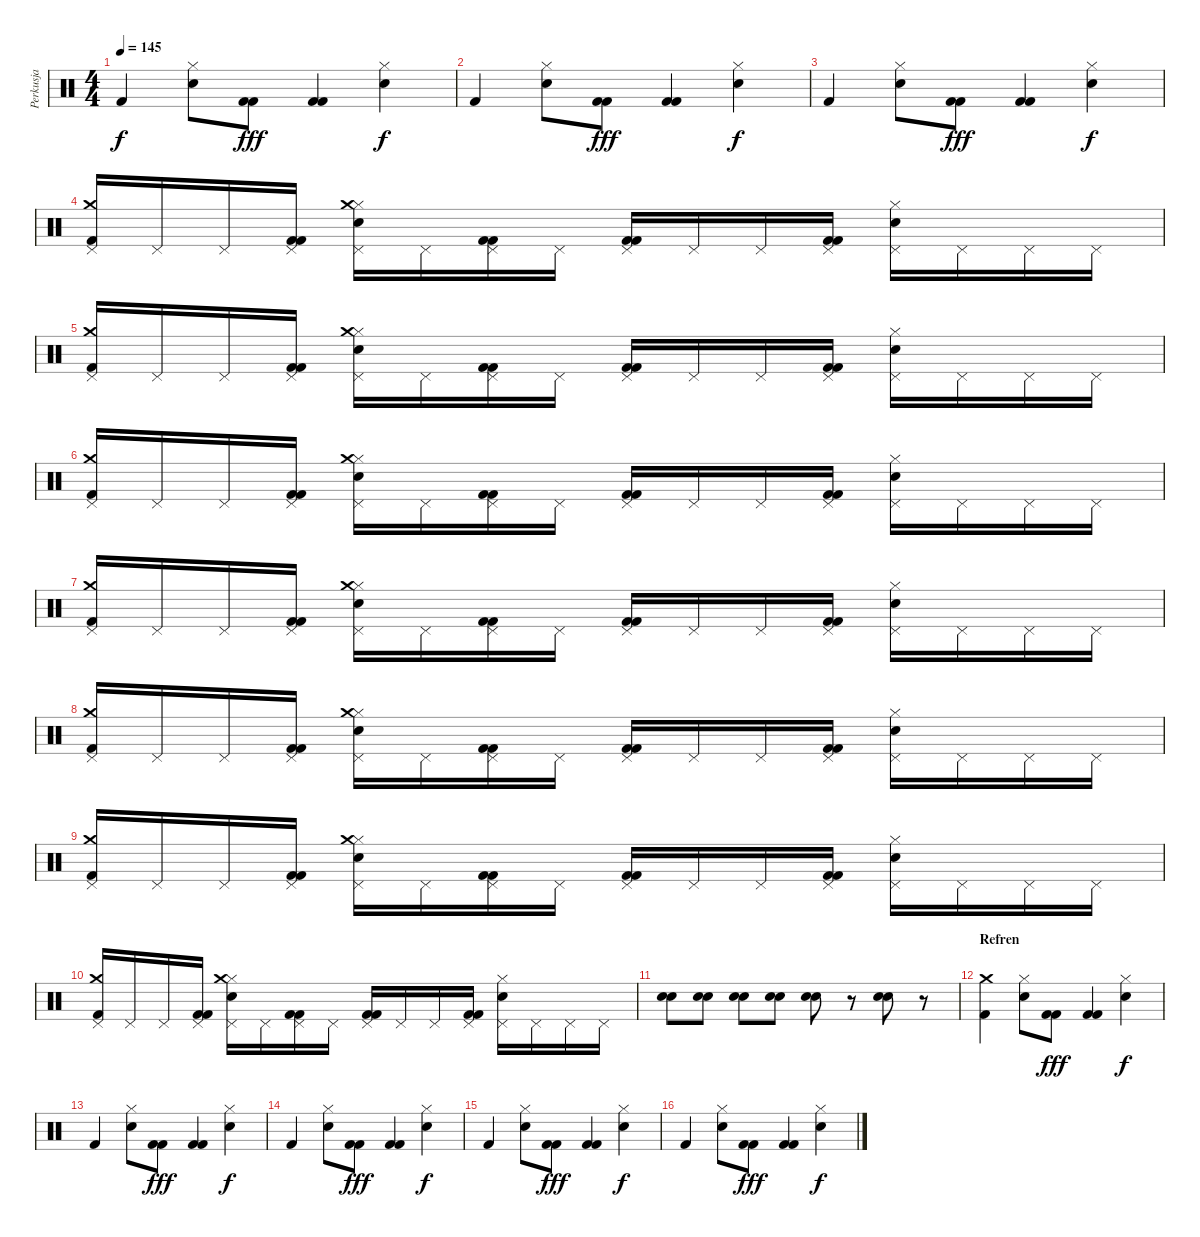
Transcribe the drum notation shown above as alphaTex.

\track ("Perkusja" "Perkusja") {instrument percussion}
\staff {score}
\articulation defaults
\ts (4 4)
\tempo 145
\clef neutral
\ks c "Kick (hit) 2".4{dy f}
("Hi-Hat (closed)" "Snare (hit) 2").8 ("Kick (hit) 2" "Kick (hit) 2").8{dy fff} ("Kick (hit) 2" "Kick (hit) 2").4 ("Hi-Hat (closed)" "Snare (hit) 2").4{dy f} |
"Kick (hit) 2".4 ("Hi-Hat (closed)" "Snare (hit) 2").8 ("Kick (hit) 2" "Kick (hit) 2").8{dy fff} ("Kick (hit) 2" "Kick (hit) 2").4 ("Hi-Hat (closed)" "Snare (hit) 2").4{dy f} |
"Kick (hit) 2".4 ("Hi-Hat (closed)" "Snare (hit) 2").8 ("Kick (hit) 2" "Kick (hit) 2").8{dy fff} ("Kick (hit) 2" "Kick (hit) 2").4 ("Hi-Hat (closed)" "Snare (hit) 2").4{dy f} |
("Kick (hit) 2" "Crash medium (hit)" "Pedal Hi-Hat (hit)").16 "Pedal Hi-Hat (hit)".16 "Pedal Hi-Hat (hit)".16 ("Kick (hit) 2" "Kick (hit) 2" "Pedal Hi-Hat (hit)").16 ("Hi-Hat (closed)" "Snare (hit) 2" "Crash medium (hit)" "Pedal Hi-Hat (hit)").16 "Pedal Hi-Hat (hit)".16 ("Kick (hit) 2" "Kick (hit) 2" "Pedal Hi-Hat (hit)").16 "Pedal Hi-Hat (hit)".16 ("Kick (hit) 2" "Kick (hit) 2" "Pedal Hi-Hat (hit)").16 "Pedal Hi-Hat (hit)".16 "Pedal Hi-Hat (hit)".16 ("Kick (hit) 2" "Kick (hit) 2" "Pedal Hi-Hat (hit)").16 ("Hi-Hat (closed)" "Snare (hit) 2" "Pedal Hi-Hat (hit)").16 "Pedal Hi-Hat (hit)".16 "Pedal Hi-Hat (hit)".16 "Pedal Hi-Hat (hit)".16 |
("Kick (hit) 2" "Crash medium (hit)" "Pedal Hi-Hat (hit)").16 "Pedal Hi-Hat (hit)".16 "Pedal Hi-Hat (hit)".16 ("Kick (hit) 2" "Kick (hit) 2" "Pedal Hi-Hat (hit)").16 ("Hi-Hat (closed)" "Snare (hit) 2" "Crash medium (hit)" "Pedal Hi-Hat (hit)").16 "Pedal Hi-Hat (hit)".16 ("Kick (hit) 2" "Kick (hit) 2" "Pedal Hi-Hat (hit)").16 "Pedal Hi-Hat (hit)".16 ("Kick (hit) 2" "Kick (hit) 2" "Pedal Hi-Hat (hit)").16 "Pedal Hi-Hat (hit)".16 "Pedal Hi-Hat (hit)".16 ("Kick (hit) 2" "Kick (hit) 2" "Pedal Hi-Hat (hit)").16 ("Hi-Hat (closed)" "Snare (hit) 2" "Pedal Hi-Hat (hit)").16 "Pedal Hi-Hat (hit)".16 "Pedal Hi-Hat (hit)".16 "Pedal Hi-Hat (hit)".16 |
("Kick (hit) 2" "Crash medium (hit)" "Pedal Hi-Hat (hit)").16 "Pedal Hi-Hat (hit)".16 "Pedal Hi-Hat (hit)".16 ("Kick (hit) 2" "Kick (hit) 2" "Pedal Hi-Hat (hit)").16 ("Hi-Hat (closed)" "Snare (hit) 2" "Crash medium (hit)" "Pedal Hi-Hat (hit)").16 "Pedal Hi-Hat (hit)".16 ("Kick (hit) 2" "Kick (hit) 2" "Pedal Hi-Hat (hit)").16 "Pedal Hi-Hat (hit)".16 ("Kick (hit) 2" "Kick (hit) 2" "Pedal Hi-Hat (hit)").16 "Pedal Hi-Hat (hit)".16 "Pedal Hi-Hat (hit)".16 ("Kick (hit) 2" "Kick (hit) 2" "Pedal Hi-Hat (hit)").16 ("Hi-Hat (closed)" "Snare (hit) 2" "Pedal Hi-Hat (hit)").16 "Pedal Hi-Hat (hit)".16 "Pedal Hi-Hat (hit)".16 "Pedal Hi-Hat (hit)".16 |
("Kick (hit) 2" "Crash medium (hit)" "Pedal Hi-Hat (hit)").16 "Pedal Hi-Hat (hit)".16 "Pedal Hi-Hat (hit)".16 ("Kick (hit) 2" "Kick (hit) 2" "Pedal Hi-Hat (hit)").16 ("Hi-Hat (closed)" "Snare (hit) 2" "Crash medium (hit)" "Pedal Hi-Hat (hit)").16 "Pedal Hi-Hat (hit)".16 ("Kick (hit) 2" "Kick (hit) 2" "Pedal Hi-Hat (hit)").16 "Pedal Hi-Hat (hit)".16 ("Kick (hit) 2" "Kick (hit) 2" "Pedal Hi-Hat (hit)").16 "Pedal Hi-Hat (hit)".16 "Pedal Hi-Hat (hit)".16 ("Kick (hit) 2" "Kick (hit) 2" "Pedal Hi-Hat (hit)").16 ("Hi-Hat (closed)" "Snare (hit) 2" "Pedal Hi-Hat (hit)").16 "Pedal Hi-Hat (hit)".16 "Pedal Hi-Hat (hit)".16 "Pedal Hi-Hat (hit)".16 |
("Kick (hit) 2" "Crash medium (hit)" "Pedal Hi-Hat (hit)").16 "Pedal Hi-Hat (hit)".16 "Pedal Hi-Hat (hit)".16 ("Kick (hit) 2" "Kick (hit) 2" "Pedal Hi-Hat (hit)").16 ("Hi-Hat (closed)" "Snare (hit) 2" "Crash medium (hit)" "Pedal Hi-Hat (hit)").16 "Pedal Hi-Hat (hit)".16 ("Kick (hit) 2" "Kick (hit) 2" "Pedal Hi-Hat (hit)").16 "Pedal Hi-Hat (hit)".16 ("Kick (hit) 2" "Kick (hit) 2" "Pedal Hi-Hat (hit)").16 "Pedal Hi-Hat (hit)".16 "Pedal Hi-Hat (hit)".16 ("Kick (hit) 2" "Kick (hit) 2" "Pedal Hi-Hat (hit)").16 ("Hi-Hat (closed)" "Snare (hit) 2" "Pedal Hi-Hat (hit)").16 "Pedal Hi-Hat (hit)".16 "Pedal Hi-Hat (hit)".16 "Pedal Hi-Hat (hit)".16 |
("Kick (hit) 2" "Crash medium (hit)" "Pedal Hi-Hat (hit)").16 "Pedal Hi-Hat (hit)".16 "Pedal Hi-Hat (hit)".16 ("Kick (hit) 2" "Kick (hit) 2" "Pedal Hi-Hat (hit)").16 ("Hi-Hat (closed)" "Snare (hit) 2" "Crash medium (hit)" "Pedal Hi-Hat (hit)").16 "Pedal Hi-Hat (hit)".16 ("Kick (hit) 2" "Kick (hit) 2" "Pedal Hi-Hat (hit)").16 "Pedal Hi-Hat (hit)".16 ("Kick (hit) 2" "Kick (hit) 2" "Pedal Hi-Hat (hit)").16 "Pedal Hi-Hat (hit)".16 "Pedal Hi-Hat (hit)".16 ("Kick (hit) 2" "Kick (hit) 2" "Pedal Hi-Hat (hit)").16 ("Hi-Hat (closed)" "Snare (hit) 2" "Pedal Hi-Hat (hit)").16 "Pedal Hi-Hat (hit)".16 "Pedal Hi-Hat (hit)".16 "Pedal Hi-Hat (hit)".16 |
("Kick (hit) 2" "Crash medium (hit)" "Pedal Hi-Hat (hit)").16 "Pedal Hi-Hat (hit)".16 "Pedal Hi-Hat (hit)".16 ("Kick (hit) 2" "Kick (hit) 2" "Pedal Hi-Hat (hit)").16 ("Hi-Hat (closed)" "Snare (hit) 2" "Crash medium (hit)" "Pedal Hi-Hat (hit)").16 "Pedal Hi-Hat (hit)".16 ("Kick (hit) 2" "Kick (hit) 2" "Pedal Hi-Hat (hit)").16 "Pedal Hi-Hat (hit)".16 ("Kick (hit) 2" "Kick (hit) 2" "Pedal Hi-Hat (hit)").16 "Pedal Hi-Hat (hit)".16 "Pedal Hi-Hat (hit)".16 ("Kick (hit) 2" "Kick (hit) 2" "Pedal Hi-Hat (hit)").16 ("Hi-Hat (closed)" "Snare (hit) 2" "Pedal Hi-Hat (hit)").16 "Pedal Hi-Hat (hit)".16 "Pedal Hi-Hat (hit)".16 "Pedal Hi-Hat (hit)".16 |
("Snare (hit) 2" "Snare (hit) 2").8 ("Snare (hit) 2" "Snare (hit) 2").8 ("Snare (hit) 2" "Snare (hit) 2").8 ("Snare (hit) 2" "Snare (hit) 2").8 ("Snare (hit) 2" "Snare (hit) 2").8 r.8 ("Snare (hit) 2" "Snare (hit) 2").8 r.8 |
\section ("" "Refren")
("Kick (hit) 2" "Crash medium (hit)").4 ("Hi-Hat (closed)" "Snare (hit) 2").8 ("Kick (hit) 2" "Kick (hit) 2").8{dy fff} ("Kick (hit) 2" "Kick (hit) 2").4 ("Hi-Hat (closed)" "Snare (hit) 2").4{dy f} |
\section ("" "")
"Kick (hit) 2".4 ("Hi-Hat (closed)" "Snare (hit) 2").8 ("Kick (hit) 2" "Kick (hit) 2").8{dy fff} ("Kick (hit) 2" "Kick (hit) 2").4 ("Hi-Hat (closed)" "Snare (hit) 2").4{dy f} |
"Kick (hit) 2".4 ("Hi-Hat (closed)" "Snare (hit) 2").8 ("Kick (hit) 2" "Kick (hit) 2").8{dy fff} ("Kick (hit) 2" "Kick (hit) 2").4 ("Hi-Hat (closed)" "Snare (hit) 2").4{dy f} |
"Kick (hit) 2".4 ("Hi-Hat (closed)" "Snare (hit) 2").8 ("Kick (hit) 2" "Kick (hit) 2").8{dy fff} ("Kick (hit) 2" "Kick (hit) 2").4 ("Hi-Hat (closed)" "Snare (hit) 2").4{dy f} |
"Kick (hit) 2".4 ("Hi-Hat (closed)" "Snare (hit) 2").8 ("Kick (hit) 2" "Kick (hit) 2").8{dy fff} ("Kick (hit) 2" "Kick (hit) 2").4 ("Hi-Hat (closed)" "Snare (hit) 2").4{dy f}
